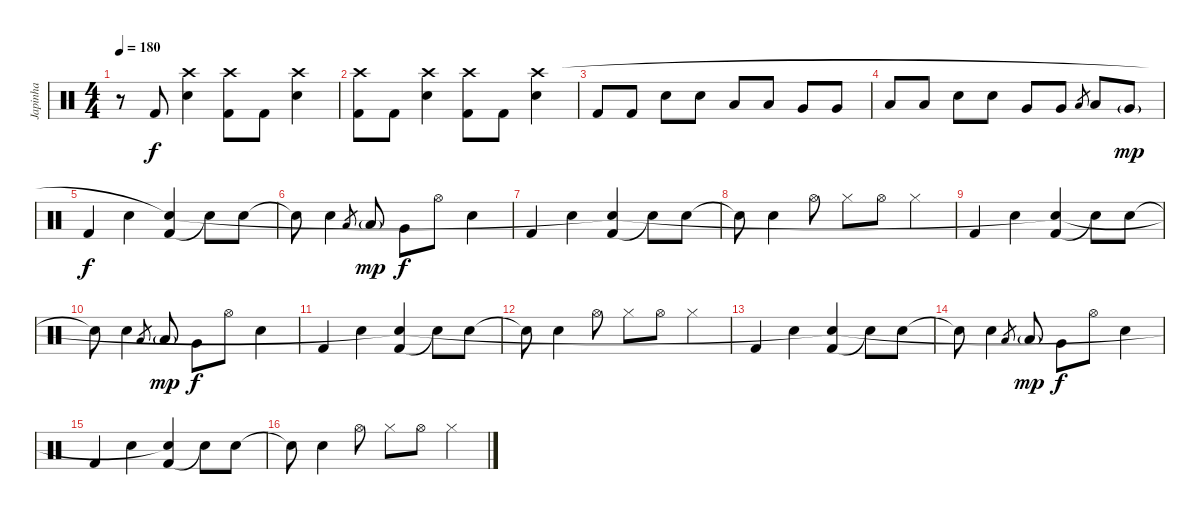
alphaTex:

\track ("Japinha" "Japinha") {instrument percussion}
\staff {score}
\articulation defaults
\ts (4 4)
\tempo 180
\clef neutral
\ks c
r.8{dy mp} "Kick (hit) 2".8{dy f} ("Snare (hit) 2" "Crash high (hit)").4 ("Kick (hit) 2" "Crash high (hit)").8 "Kick (hit) 2".8 ("Snare (hit) 2" "Crash high (hit)").4 |
("Kick (hit) 2" "Crash high (hit)").8 "Kick (hit) 2".8 ("Snare (hit) 2" "Crash high (hit)").4 ("Kick (hit) 2" "Crash high (hit)").8 "Kick (hit) 2".8 ("Snare (hit) 2" "Crash high (hit)").4 |
"Kick (hit) 2".8 "Kick (hit) 2".8 "Snare (hit) 2".8 "Snare (hit) 2".8 "Low Tom (hit)".8 "Low Tom (hit)".8 "Very Low Tom (hit)".8 "Very Low Tom (hit)".8 |
"Low Tom (hit)".8 "Low Tom (hit)".8 "Snare (hit) 2".8 "Snare (hit) 2".8 "Very Low Tom (hit)".8 "Very Low Tom (hit)".8 "Low Tom (hit)".8{gr} "Low Tom (hit)".8 "Very Low Tom (hit)"{g}.8{dy mp} |
"Kick (hit) 2".4{dy f} "Snare (hit) 2".4 ("Kick (hit) 2" "Snare (hit)"{t}).4 "Snare (hit)"{t}.8 "Snare (hit) 2".8 |
"Snare (hit)"{t}.8 "Snare (hit) 2".4 "Low Tom (hit)".8{gr} "Low Tom (hit)"{g}.8{dy mp} "Very Low Tom (hit)".8{dy f} "Hi-Hat (open)".8 "Snare (hit) 2".4 |
"Kick (hit) 2".4 "Snare (hit) 2".4 ("Kick (hit) 2" "Snare (hit)"{t}).4 "Snare (hit)"{t}.8 "Snare (hit) 2".8 |
"Snare (hit)"{t}.8 "Snare (hit) 2".4 "Hi-Hat (open)".8 "Hi-Hat (closed)".8 "Hi-Hat (open)".8 "Hi-Hat (closed)".4 |
"Kick (hit) 2".4 "Snare (hit) 2".4 ("Kick (hit) 2" "Snare (hit)"{t}).4 "Snare (hit)"{t}.8 "Snare (hit) 2".8 |
"Snare (hit)"{t}.8 "Snare (hit) 2".4 "Low Tom (hit)".8{gr} "Low Tom (hit)"{g}.8{dy mp} "Very Low Tom (hit)".8{dy f} "Hi-Hat (open)".8 "Snare (hit) 2".4 |
"Kick (hit) 2".4 "Snare (hit) 2".4 ("Kick (hit) 2" "Snare (hit)"{t}).4 "Snare (hit)"{t}.8 "Snare (hit) 2".8 |
"Snare (hit)"{t}.8 "Snare (hit) 2".4 "Hi-Hat (open)".8 "Hi-Hat (closed)".8 "Hi-Hat (open)".8 "Hi-Hat (closed)".4 |
"Kick (hit) 2".4 "Snare (hit) 2".4 ("Kick (hit) 2" "Snare (hit)"{t}).4 "Snare (hit)"{t}.8 "Snare (hit) 2".8 |
"Snare (hit)"{t}.8 "Snare (hit) 2".4 "Low Tom (hit)".8{gr} "Low Tom (hit)"{g}.8{dy mp} "Very Low Tom (hit)".8{dy f} "Hi-Hat (open)".8 "Snare (hit) 2".4 |
"Kick (hit) 2".4 "Snare (hit) 2".4 ("Kick (hit) 2" "Snare (hit)"{t}).4 "Snare (hit)"{t}.8 "Snare (hit) 2".8 |
"Snare (hit)"{t}.8 "Snare (hit) 2".4 "Hi-Hat (open)".8 "Hi-Hat (closed)".8 "Hi-Hat (open)".8 "Hi-Hat (closed)".4
